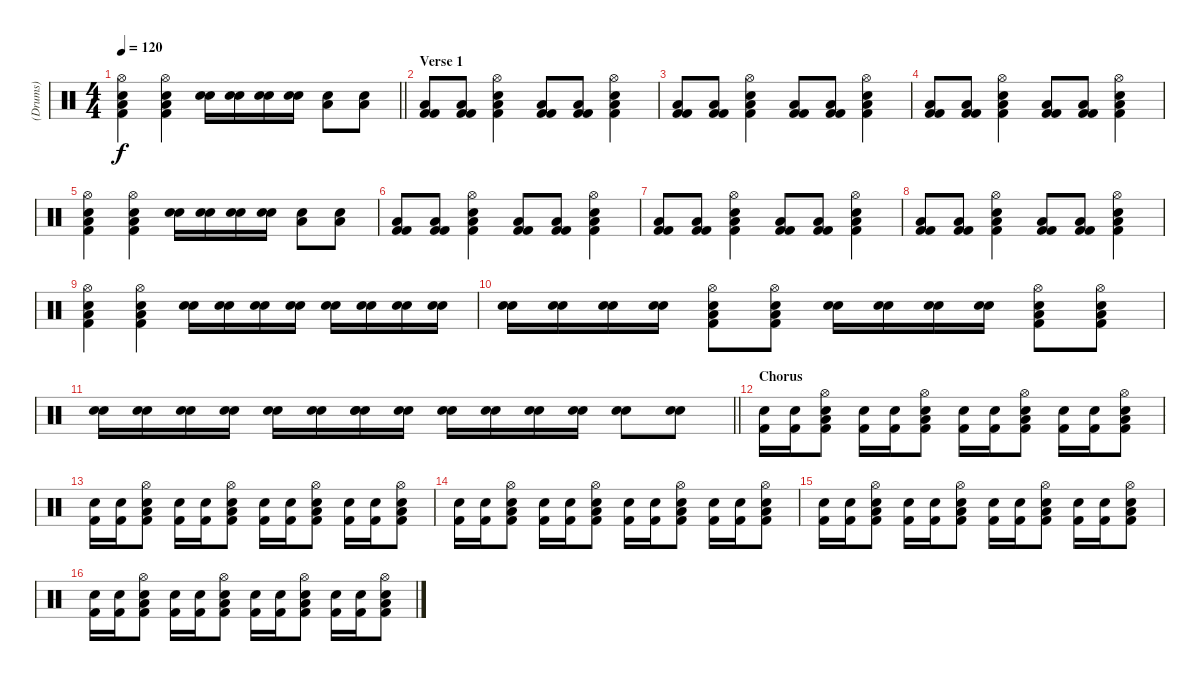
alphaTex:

\track ("(Drums)" "(Drums)") {instrument percussion}
\staff {score}
\articulation defaults
\ts (4 4)
\tempo 120
\clef neutral
\barLineRight lightlight
\ks c
("Kick (hit) 2" "Electric Snare (hit)" "Low Floor Tom (hit)" "Hi-Hat (open)").4{dy f} ("Kick (hit) 2" "Electric Snare (hit)" "Low Floor Tom (hit)" "Hi-Hat (open)").4 ("Electric Snare (hit)" "Electric Snare (hit)").16 ("Electric Snare (hit)" "Electric Snare (hit)").16 ("Electric Snare (hit)" "Electric Snare (hit)").16 ("Electric Snare (hit)" "Electric Snare (hit)").16 ("Electric Snare (hit)" "Low Floor Tom (hit)").8 ("Electric Snare (hit)" "Low Floor Tom (hit)").8 |
\section ("" "Verse 1")
("Kick (hit) 2" "Kick (hit) 2" "Low Floor Tom (hit)").8 ("Kick (hit) 2" "Kick (hit) 2" "Low Floor Tom (hit)").8 ("Kick (hit) 2" "Electric Snare (hit)" "Low Floor Tom (hit)" "Hi-Hat (open)").4 ("Kick (hit) 2" "Kick (hit) 2" "Low Floor Tom (hit)").8 ("Kick (hit) 2" "Kick (hit) 2" "Low Floor Tom (hit)").8 ("Kick (hit) 2" "Electric Snare (hit)" "Low Floor Tom (hit)" "Hi-Hat (open)").4 |
("Kick (hit) 2" "Kick (hit) 2" "Low Floor Tom (hit)").8 ("Kick (hit) 2" "Kick (hit) 2" "Low Floor Tom (hit)").8 ("Kick (hit) 2" "Electric Snare (hit)" "Low Floor Tom (hit)" "Hi-Hat (open)").4 ("Kick (hit) 2" "Kick (hit) 2" "Low Floor Tom (hit)").8 ("Kick (hit) 2" "Kick (hit) 2" "Low Floor Tom (hit)").8 ("Kick (hit) 2" "Electric Snare (hit)" "Low Floor Tom (hit)" "Hi-Hat (open)").4 |
("Kick (hit) 2" "Kick (hit) 2" "Low Floor Tom (hit)").8 ("Kick (hit) 2" "Kick (hit) 2" "Low Floor Tom (hit)").8 ("Kick (hit) 2" "Electric Snare (hit)" "Low Floor Tom (hit)" "Hi-Hat (open)").4 ("Kick (hit) 2" "Kick (hit) 2" "Low Floor Tom (hit)").8 ("Kick (hit) 2" "Kick (hit) 2" "Low Floor Tom (hit)").8 ("Kick (hit) 2" "Electric Snare (hit)" "Low Floor Tom (hit)" "Hi-Hat (open)").4 |
("Kick (hit) 2" "Electric Snare (hit)" "Low Floor Tom (hit)" "Hi-Hat (open)").4 ("Kick (hit) 2" "Electric Snare (hit)" "Low Floor Tom (hit)" "Hi-Hat (open)").4 ("Electric Snare (hit)" "Electric Snare (hit)").16 ("Electric Snare (hit)" "Electric Snare (hit)").16 ("Electric Snare (hit)" "Electric Snare (hit)").16 ("Electric Snare (hit)" "Electric Snare (hit)").16 ("Electric Snare (hit)" "Low Floor Tom (hit)").8 ("Electric Snare (hit)" "Low Floor Tom (hit)").8 |
("Kick (hit) 2" "Kick (hit) 2" "Low Floor Tom (hit)").8 ("Kick (hit) 2" "Kick (hit) 2" "Low Floor Tom (hit)").8 ("Kick (hit) 2" "Electric Snare (hit)" "Low Floor Tom (hit)" "Hi-Hat (open)").4 ("Kick (hit) 2" "Kick (hit) 2" "Low Floor Tom (hit)").8 ("Kick (hit) 2" "Kick (hit) 2" "Low Floor Tom (hit)").8 ("Kick (hit) 2" "Electric Snare (hit)" "Low Floor Tom (hit)" "Hi-Hat (open)").4 |
("Kick (hit) 2" "Kick (hit) 2" "Low Floor Tom (hit)").8 ("Kick (hit) 2" "Kick (hit) 2" "Low Floor Tom (hit)").8 ("Kick (hit) 2" "Electric Snare (hit)" "Low Floor Tom (hit)" "Hi-Hat (open)").4 ("Kick (hit) 2" "Kick (hit) 2" "Low Floor Tom (hit)").8 ("Kick (hit) 2" "Kick (hit) 2" "Low Floor Tom (hit)").8 ("Kick (hit) 2" "Electric Snare (hit)" "Low Floor Tom (hit)" "Hi-Hat (open)").4 |
("Kick (hit) 2" "Kick (hit) 2" "Low Floor Tom (hit)").8 ("Kick (hit) 2" "Kick (hit) 2" "Low Floor Tom (hit)").8 ("Kick (hit) 2" "Electric Snare (hit)" "Low Floor Tom (hit)" "Hi-Hat (open)").4 ("Kick (hit) 2" "Kick (hit) 2" "Low Floor Tom (hit)").8 ("Kick (hit) 2" "Kick (hit) 2" "Low Floor Tom (hit)").8 ("Kick (hit) 2" "Electric Snare (hit)" "Low Floor Tom (hit)" "Hi-Hat (open)").4 |
("Kick (hit) 2" "Electric Snare (hit)" "Low Floor Tom (hit)" "Hi-Hat (open)").4 ("Kick (hit) 2" "Electric Snare (hit)" "Low Floor Tom (hit)" "Hi-Hat (open)").4 ("Electric Snare (hit)" "Electric Snare (hit)").16 ("Electric Snare (hit)" "Electric Snare (hit)").16 ("Electric Snare (hit)" "Electric Snare (hit)").16 ("Electric Snare (hit)" "Electric Snare (hit)").16 ("Electric Snare (hit)" "Electric Snare (hit)").16 ("Electric Snare (hit)" "Electric Snare (hit)").16 ("Electric Snare (hit)" "Electric Snare (hit)").16 ("Electric Snare (hit)" "Electric Snare (hit)").16 |
("Electric Snare (hit)" "Electric Snare (hit)").16 ("Electric Snare (hit)" "Electric Snare (hit)").16 ("Electric Snare (hit)" "Electric Snare (hit)").16 ("Electric Snare (hit)" "Electric Snare (hit)").16 ("Kick (hit) 2" "Electric Snare (hit)" "Low Floor Tom (hit)" "Hi-Hat (open)").8 ("Kick (hit) 2" "Electric Snare (hit)" "Low Floor Tom (hit)" "Hi-Hat (open)").8 ("Electric Snare (hit)" "Electric Snare (hit)").16 ("Electric Snare (hit)" "Electric Snare (hit)").16 ("Electric Snare (hit)" "Electric Snare (hit)").16 ("Electric Snare (hit)" "Electric Snare (hit)").16 ("Kick (hit) 2" "Electric Snare (hit)" "Low Floor Tom (hit)" "Hi-Hat (open)").8 ("Kick (hit) 2" "Electric Snare (hit)" "Low Floor Tom (hit)" "Hi-Hat (open)").8 |
\barLineRight lightlight
("Electric Snare (hit)" "Electric Snare (hit)").16 ("Electric Snare (hit)" "Electric Snare (hit)").16 ("Electric Snare (hit)" "Electric Snare (hit)").16 ("Electric Snare (hit)" "Electric Snare (hit)").16 ("Electric Snare (hit)" "Electric Snare (hit)").16 ("Electric Snare (hit)" "Electric Snare (hit)").16 ("Electric Snare (hit)" "Electric Snare (hit)" "Electric Snare (hit)").16 ("Electric Snare (hit)" "Electric Snare (hit)").16 ("Electric Snare (hit)" "Electric Snare (hit)").16 ("Electric Snare (hit)" "Electric Snare (hit)").16 ("Electric Snare (hit)" "Electric Snare (hit)").16 ("Electric Snare (hit)" "Electric Snare (hit)").16 ("Electric Snare (hit)" "Electric Snare (hit)").8 ("Electric Snare (hit)" "Electric Snare (hit)").8 |
\section ("" "Chorus")
("Kick (hit) 2" "Electric Snare (hit)").16 ("Kick (hit) 2" "Electric Snare (hit)").16 ("Kick (hit) 2" "Electric Snare (hit)" "Low Floor Tom (hit)" "Hi-Hat (open)").8 ("Kick (hit) 2" "Electric Snare (hit)").16 ("Kick (hit) 2" "Electric Snare (hit)").16 ("Kick (hit) 2" "Electric Snare (hit)" "Low Floor Tom (hit)" "Hi-Hat (open)").8 ("Kick (hit) 2" "Electric Snare (hit)").16 ("Kick (hit) 2" "Electric Snare (hit)").16 ("Kick (hit) 2" "Electric Snare (hit)" "Low Floor Tom (hit)" "Hi-Hat (open)").8 ("Kick (hit) 2" "Electric Snare (hit)").16 ("Kick (hit) 2" "Electric Snare (hit)").16 ("Kick (hit) 2" "Electric Snare (hit)" "Low Floor Tom (hit)" "Hi-Hat (open)").8 |
("Kick (hit) 2" "Electric Snare (hit)").16 ("Kick (hit) 2" "Electric Snare (hit)").16 ("Kick (hit) 2" "Electric Snare (hit)" "Low Floor Tom (hit)" "Hi-Hat (open)").8 ("Kick (hit) 2" "Electric Snare (hit)").16 ("Kick (hit) 2" "Electric Snare (hit)").16 ("Kick (hit) 2" "Electric Snare (hit)" "Low Floor Tom (hit)" "Hi-Hat (open)").8 ("Kick (hit) 2" "Electric Snare (hit)").16 ("Kick (hit) 2" "Electric Snare (hit)").16 ("Kick (hit) 2" "Electric Snare (hit)" "Low Floor Tom (hit)" "Hi-Hat (open)").8 ("Kick (hit) 2" "Electric Snare (hit)").16 ("Kick (hit) 2" "Electric Snare (hit)").16 ("Kick (hit) 2" "Electric Snare (hit)" "Low Floor Tom (hit)" "Hi-Hat (open)").8 |
("Kick (hit) 2" "Electric Snare (hit)").16 ("Kick (hit) 2" "Electric Snare (hit)").16 ("Kick (hit) 2" "Electric Snare (hit)" "Low Floor Tom (hit)" "Hi-Hat (open)").8 ("Kick (hit) 2" "Electric Snare (hit)").16 ("Kick (hit) 2" "Electric Snare (hit)").16 ("Kick (hit) 2" "Electric Snare (hit)" "Low Floor Tom (hit)" "Hi-Hat (open)").8 ("Kick (hit) 2" "Electric Snare (hit)").16 ("Kick (hit) 2" "Electric Snare (hit)").16 ("Kick (hit) 2" "Electric Snare (hit)" "Low Floor Tom (hit)" "Hi-Hat (open)").8 ("Kick (hit) 2" "Electric Snare (hit)").16 ("Kick (hit) 2" "Electric Snare (hit)").16 ("Kick (hit) 2" "Electric Snare (hit)" "Low Floor Tom (hit)" "Hi-Hat (open)").8 |
("Kick (hit) 2" "Electric Snare (hit)").16 ("Kick (hit) 2" "Electric Snare (hit)").16 ("Kick (hit) 2" "Electric Snare (hit)" "Low Floor Tom (hit)" "Hi-Hat (open)").8 ("Kick (hit) 2" "Electric Snare (hit)").16 ("Kick (hit) 2" "Electric Snare (hit)").16 ("Kick (hit) 2" "Electric Snare (hit)" "Low Floor Tom (hit)" "Hi-Hat (open)").8 ("Kick (hit) 2" "Electric Snare (hit)").16 ("Kick (hit) 2" "Electric Snare (hit)").16 ("Kick (hit) 2" "Electric Snare (hit)" "Low Floor Tom (hit)" "Hi-Hat (open)").8 ("Kick (hit) 2" "Electric Snare (hit)").16 ("Kick (hit) 2" "Electric Snare (hit)").16 ("Kick (hit) 2" "Electric Snare (hit)" "Low Floor Tom (hit)" "Hi-Hat (open)").8 |
("Kick (hit) 2" "Electric Snare (hit)").16 ("Kick (hit) 2" "Electric Snare (hit)").16 ("Kick (hit) 2" "Electric Snare (hit)" "Low Floor Tom (hit)" "Hi-Hat (open)").8 ("Kick (hit) 2" "Electric Snare (hit)").16 ("Kick (hit) 2" "Electric Snare (hit)").16 ("Kick (hit) 2" "Electric Snare (hit)" "Low Floor Tom (hit)" "Hi-Hat (open)").8 ("Kick (hit) 2" "Electric Snare (hit)").16 ("Kick (hit) 2" "Electric Snare (hit)").16 ("Kick (hit) 2" "Electric Snare (hit)" "Low Floor Tom (hit)" "Hi-Hat (open)").8 ("Kick (hit) 2" "Electric Snare (hit)").16 ("Kick (hit) 2" "Electric Snare (hit)").16 ("Kick (hit) 2" "Electric Snare (hit)" "Low Floor Tom (hit)" "Hi-Hat (open)").8
